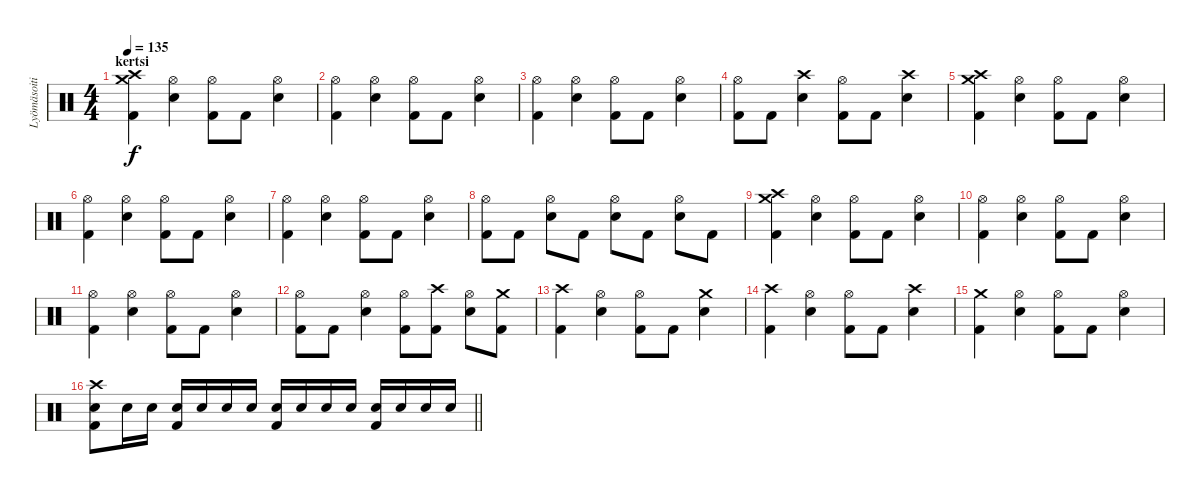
\track ("Lyömäsoitin" "Lyömäsoiti") {instrument percussion}
\staff {score}
\articulation defaults
\ts (4 4)
\section ("" "kertsi")
\tempo 135
\clef neutral
\ks c
("Crash high (hit)" "Crash medium (hit)" "Kick (hit) 2").4{dy f} ("Hi-Hat (open)" "Electric Snare (hit)").4 ("Hi-Hat (open)" "Kick (hit) 2").8 "Kick (hit) 2".8 ("Hi-Hat (open)" "Electric Snare (hit)").4 |
("Hi-Hat (open)" "Kick (hit) 2").4 ("Hi-Hat (open)" "Electric Snare (hit)").4 ("Hi-Hat (open)" "Kick (hit) 2").8 "Kick (hit) 2".8 ("Hi-Hat (open)" "Electric Snare (hit)").4 |
("Hi-Hat (open)" "Kick (hit) 2").4 ("Hi-Hat (open)" "Electric Snare (hit)").4 ("Hi-Hat (open)" "Kick (hit) 2").8 "Kick (hit) 2".8 ("Hi-Hat (open)" "Electric Snare (hit)").4 |
("Hi-Hat (open)" "Kick (hit) 2").8 "Kick (hit) 2".8 ("Crash high (hit)" "Electric Snare (hit)").4 ("Hi-Hat (open)" "Kick (hit) 2").8 "Kick (hit) 2".8 ("Crash high (hit)" "Electric Snare (hit)").4 |
("Crash high (hit)" "Crash medium (hit)" "Kick (hit) 2").4 ("Hi-Hat (open)" "Electric Snare (hit)").4 ("Hi-Hat (open)" "Kick (hit) 2").8 "Kick (hit) 2".8 ("Hi-Hat (open)" "Electric Snare (hit)").4 |
("Hi-Hat (open)" "Kick (hit) 2").4 ("Hi-Hat (open)" "Electric Snare (hit)").4 ("Hi-Hat (open)" "Kick (hit) 2").8 "Kick (hit) 2".8 ("Hi-Hat (open)" "Electric Snare (hit)").4 |
("Hi-Hat (open)" "Kick (hit) 2").4 ("Hi-Hat (open)" "Electric Snare (hit)").4 ("Hi-Hat (open)" "Kick (hit) 2").8 "Kick (hit) 2".8 ("Hi-Hat (open)" "Electric Snare (hit)").4 |
("Hi-Hat (open)" "Kick (hit) 2").8 "Kick (hit) 2".8 ("Hi-Hat (open)" "Electric Snare (hit)").8 "Kick (hit) 2".8 ("Hi-Hat (open)" "Electric Snare (hit)").8 "Kick (hit) 2".8 ("Hi-Hat (open)" "Electric Snare (hit)").8 "Kick (hit) 2".8 |
("Crash high (hit)" "Crash medium (hit)" "Kick (hit) 2").4 ("Hi-Hat (open)" "Electric Snare (hit)").4 ("Hi-Hat (open)" "Kick (hit) 2").8 "Kick (hit) 2".8 ("Hi-Hat (open)" "Electric Snare (hit)").4 |
("Hi-Hat (open)" "Kick (hit) 2").4 ("Hi-Hat (open)" "Electric Snare (hit)").4 ("Hi-Hat (open)" "Kick (hit) 2").8 "Kick (hit) 2".8 ("Hi-Hat (open)" "Electric Snare (hit)").4 |
("Hi-Hat (open)" "Kick (hit) 2").4 ("Hi-Hat (open)" "Electric Snare (hit)").4 ("Hi-Hat (open)" "Kick (hit) 2").8 "Kick (hit) 2".8 ("Hi-Hat (open)" "Electric Snare (hit)").4 |
("Hi-Hat (open)" "Kick (hit) 2").8 "Kick (hit) 2".8 ("Hi-Hat (open)" "Electric Snare (hit)").4 ("Hi-Hat (open)" "Kick (hit) 2").8 ("Crash high (hit)" "Kick (hit) 2").8 ("Hi-Hat (open)" "Electric Snare (hit)").8 ("Crash medium (hit)" "Kick (hit) 2").8 |
("Crash high (hit)" "Kick (hit) 2").4 ("Hi-Hat (open)" "Electric Snare (hit)").4 ("Hi-Hat (open)" "Kick (hit) 2").8 "Kick (hit) 2".8 ("Crash medium (hit)" "Electric Snare (hit)").4 |
("Crash high (hit)" "Kick (hit) 2").4 ("Hi-Hat (open)" "Electric Snare (hit)").4 ("Hi-Hat (open)" "Kick (hit) 2").8 "Kick (hit) 2".8 ("Crash high (hit)" "Electric Snare (hit)").4 |
("Crash medium (hit)" "Kick (hit) 2").4 ("Hi-Hat (open)" "Electric Snare (hit)").4 ("Hi-Hat (open)" "Kick (hit) 2").8 "Kick (hit) 2".8 ("Hi-Hat (open)" "Electric Snare (hit)").4 |
\barLineRight lightlight
("Crash high (hit)" "Electric Snare (hit)" "Kick (hit) 2").8 "Electric Snare (hit)".16 "Electric Snare (hit)".16 ("Electric Snare (hit)" "Kick (hit) 2").16 "Electric Snare (hit)".16 "Electric Snare (hit)".16 "Electric Snare (hit)".16 ("Electric Snare (hit)" "Kick (hit) 2").16 "Electric Snare (hit)".16 "Electric Snare (hit)".16 "Electric Snare (hit)".16 ("Electric Snare (hit)" "Kick (hit) 2").16 "Electric Snare (hit)".16 "Electric Snare (hit)".16 "Electric Snare (hit)".16
